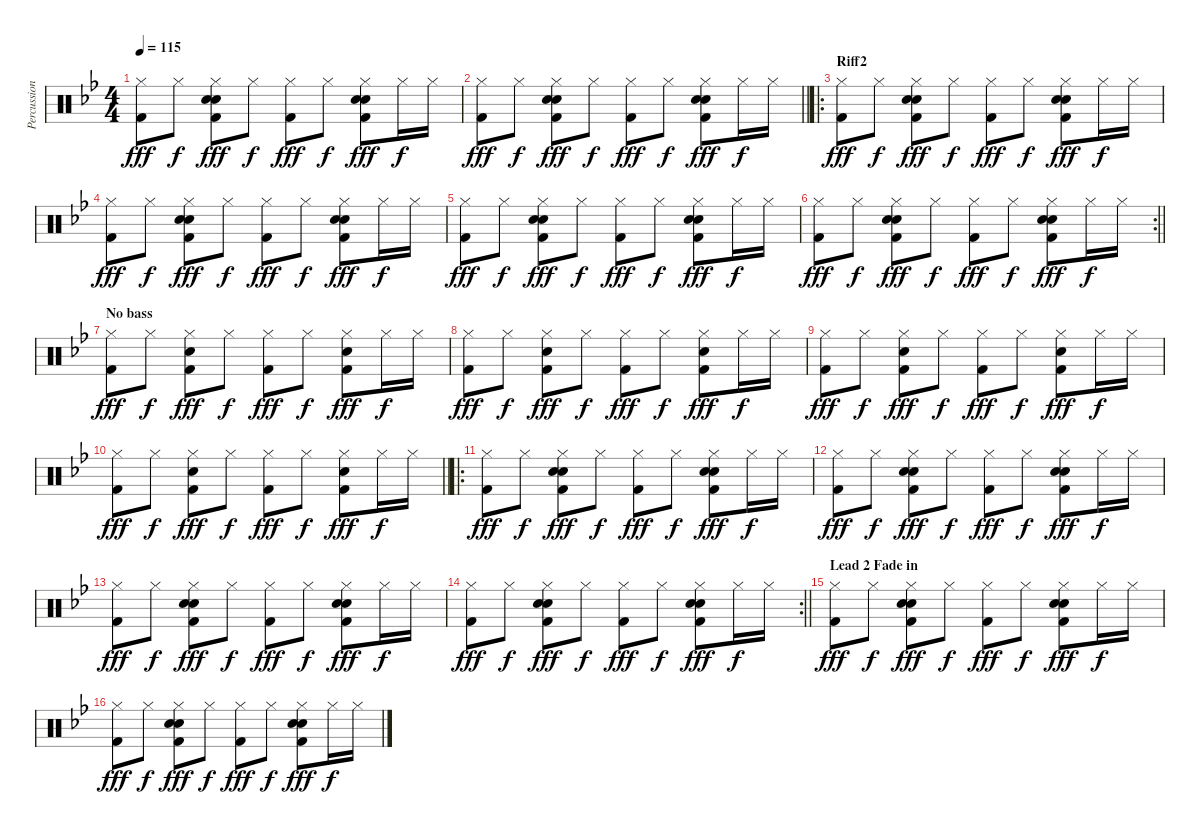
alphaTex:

\track ("Percussions" "Percussion") {instrument percussion}
\staff {score}
\articulation defaults
\ts (4 4)
\tempo 115
\clef neutral
\ks gminor
("Hi-Hat (closed)" "Kick (hit) 2").8{dy fff} "Hi-Hat (closed)".8{dy f} ("Hi-Hat (closed)" "Hand Clap (hit)" "Electric Snare (hit)" "Kick (hit) 2").8{dy fff} "Hi-Hat (closed)".8{dy f} ("Hi-Hat (closed)" "Kick (hit) 2").8{dy fff} "Hi-Hat (closed)".8{dy f} ("Hi-Hat (closed)" "Hand Clap (hit)" "Electric Snare (hit)" "Kick (hit) 2").8{dy fff} "Hi-Hat (closed)".16{dy f} "Hi-Hat (closed)".16 |
\barLineRight lightlight
("Hi-Hat (closed)" "Kick (hit) 2").8{dy fff} "Hi-Hat (closed)".8{dy f} ("Hi-Hat (closed)" "Hand Clap (hit)" "Electric Snare (hit)" "Kick (hit) 2").8{dy fff} "Hi-Hat (closed)".8{dy f} ("Hi-Hat (closed)" "Kick (hit) 2").8{dy fff} "Hi-Hat (closed)".8{dy f} ("Hi-Hat (closed)" "Hand Clap (hit)" "Electric Snare (hit)" "Kick (hit) 2").8{dy fff} "Hi-Hat (closed)".16{dy f} "Hi-Hat (closed)".16 |
\ro
\section ("" "Riff2")
("Hi-Hat (closed)" "Kick (hit) 2").8{dy fff} "Hi-Hat (closed)".8{dy f} ("Hi-Hat (closed)" "Hand Clap (hit)" "Electric Snare (hit)" "Kick (hit) 2").8{dy fff} "Hi-Hat (closed)".8{dy f} ("Hi-Hat (closed)" "Kick (hit) 2").8{dy fff} "Hi-Hat (closed)".8{dy f} ("Hi-Hat (closed)" "Hand Clap (hit)" "Electric Snare (hit)" "Kick (hit) 2").8{dy fff} "Hi-Hat (closed)".16{dy f} "Hi-Hat (closed)".16 |
("Hi-Hat (closed)" "Kick (hit) 2").8{dy fff} "Hi-Hat (closed)".8{dy f} ("Hi-Hat (closed)" "Hand Clap (hit)" "Electric Snare (hit)" "Kick (hit) 2").8{dy fff} "Hi-Hat (closed)".8{dy f} ("Hi-Hat (closed)" "Kick (hit) 2").8{dy fff} "Hi-Hat (closed)".8{dy f} ("Hi-Hat (closed)" "Hand Clap (hit)" "Electric Snare (hit)" "Kick (hit) 2").8{dy fff} "Hi-Hat (closed)".16{dy f} "Hi-Hat (closed)".16 |
("Hi-Hat (closed)" "Kick (hit) 2").8{dy fff} "Hi-Hat (closed)".8{dy f} ("Hi-Hat (closed)" "Hand Clap (hit)" "Electric Snare (hit)" "Kick (hit) 2").8{dy fff} "Hi-Hat (closed)".8{dy f} ("Hi-Hat (closed)" "Kick (hit) 2").8{dy fff} "Hi-Hat (closed)".8{dy f} ("Hi-Hat (closed)" "Hand Clap (hit)" "Electric Snare (hit)" "Kick (hit) 2").8{dy fff} "Hi-Hat (closed)".16{dy f} "Hi-Hat (closed)".16 |
\rc 2
\barLineRight lightlight
("Hi-Hat (closed)" "Kick (hit) 2").8{dy fff} "Hi-Hat (closed)".8{dy f} ("Hi-Hat (closed)" "Hand Clap (hit)" "Electric Snare (hit)" "Kick (hit) 2").8{dy fff} "Hi-Hat (closed)".8{dy f} ("Hi-Hat (closed)" "Kick (hit) 2").8{dy fff} "Hi-Hat (closed)".8{dy f} ("Hi-Hat (closed)" "Hand Clap (hit)" "Electric Snare (hit)" "Kick (hit) 2").8{dy fff} "Hi-Hat (closed)".16{dy f} "Hi-Hat (closed)".16 |
\section ("" "No bass")
("Hi-Hat (closed)" "Kick (hit) 2").8{dy fff} "Hi-Hat (closed)".8{dy f} ("Hi-Hat (closed)" "Hand Clap (hit)" "Kick (hit) 2").8{dy fff} "Hi-Hat (closed)".8{dy f} ("Hi-Hat (closed)" "Kick (hit) 2").8{dy fff} "Hi-Hat (closed)".8{dy f} ("Hi-Hat (closed)" "Hand Clap (hit)" "Kick (hit) 2").8{dy fff} "Hi-Hat (closed)".16{dy f} "Hi-Hat (closed)".16 |
("Hi-Hat (closed)" "Kick (hit) 2").8{dy fff} "Hi-Hat (closed)".8{dy f} ("Hi-Hat (closed)" "Hand Clap (hit)" "Kick (hit) 2").8{dy fff} "Hi-Hat (closed)".8{dy f} ("Hi-Hat (closed)" "Kick (hit) 2").8{dy fff} "Hi-Hat (closed)".8{dy f} ("Hi-Hat (closed)" "Hand Clap (hit)" "Kick (hit) 2").8{dy fff} "Hi-Hat (closed)".16{dy f} "Hi-Hat (closed)".16 |
("Hi-Hat (closed)" "Kick (hit) 2").8{dy fff} "Hi-Hat (closed)".8{dy f} ("Hi-Hat (closed)" "Hand Clap (hit)" "Kick (hit) 2").8{dy fff} "Hi-Hat (closed)".8{dy f} ("Hi-Hat (closed)" "Kick (hit) 2").8{dy fff} "Hi-Hat (closed)".8{dy f} ("Hi-Hat (closed)" "Hand Clap (hit)" "Kick (hit) 2").8{dy fff} "Hi-Hat (closed)".16{dy f} "Hi-Hat (closed)".16 |
\barLineRight lightlight
("Hi-Hat (closed)" "Kick (hit) 2").8{dy fff} "Hi-Hat (closed)".8{dy f} ("Hi-Hat (closed)" "Hand Clap (hit)" "Kick (hit) 2").8{dy fff} "Hi-Hat (closed)".8{dy f} ("Hi-Hat (closed)" "Kick (hit) 2").8{dy fff} "Hi-Hat (closed)".8{dy f} ("Hi-Hat (closed)" "Hand Clap (hit)" "Kick (hit) 2").8{dy fff} "Hi-Hat (closed)".16{dy f} "Hi-Hat (closed)".16 |
\ro
("Hi-Hat (closed)" "Kick (hit) 2").8{dy fff} "Hi-Hat (closed)".8{dy f} ("Hi-Hat (closed)" "Hand Clap (hit)" "Electric Snare (hit)" "Kick (hit) 2").8{dy fff} "Hi-Hat (closed)".8{dy f} ("Hi-Hat (closed)" "Kick (hit) 2").8{dy fff} "Hi-Hat (closed)".8{dy f} ("Hi-Hat (closed)" "Hand Clap (hit)" "Electric Snare (hit)" "Kick (hit) 2").8{dy fff} "Hi-Hat (closed)".16{dy f} "Hi-Hat (closed)".16 |
("Hi-Hat (closed)" "Kick (hit) 2").8{dy fff} "Hi-Hat (closed)".8{dy f} ("Hi-Hat (closed)" "Hand Clap (hit)" "Electric Snare (hit)" "Kick (hit) 2").8{dy fff} "Hi-Hat (closed)".8{dy f} ("Hi-Hat (closed)" "Kick (hit) 2").8{dy fff} "Hi-Hat (closed)".8{dy f} ("Hi-Hat (closed)" "Hand Clap (hit)" "Electric Snare (hit)" "Kick (hit) 2").8{dy fff} "Hi-Hat (closed)".16{dy f} "Hi-Hat (closed)".16 |
("Hi-Hat (closed)" "Kick (hit) 2").8{dy fff} "Hi-Hat (closed)".8{dy f} ("Hi-Hat (closed)" "Hand Clap (hit)" "Electric Snare (hit)" "Kick (hit) 2").8{dy fff} "Hi-Hat (closed)".8{dy f} ("Hi-Hat (closed)" "Kick (hit) 2").8{dy fff} "Hi-Hat (closed)".8{dy f} ("Hi-Hat (closed)" "Hand Clap (hit)" "Electric Snare (hit)" "Kick (hit) 2").8{dy fff} "Hi-Hat (closed)".16{dy f} "Hi-Hat (closed)".16 |
\rc 2
\barLineRight lightlight
("Hi-Hat (closed)" "Kick (hit) 2").8{dy fff} "Hi-Hat (closed)".8{dy f} ("Hi-Hat (closed)" "Hand Clap (hit)" "Electric Snare (hit)" "Kick (hit) 2").8{dy fff} "Hi-Hat (closed)".8{dy f} ("Hi-Hat (closed)" "Kick (hit) 2").8{dy fff} "Hi-Hat (closed)".8{dy f} ("Hi-Hat (closed)" "Hand Clap (hit)" "Electric Snare (hit)" "Kick (hit) 2").8{dy fff} "Hi-Hat (closed)".16{dy f} "Hi-Hat (closed)".16 |
\section ("" "Lead 2 Fade in")
("Hi-Hat (closed)" "Kick (hit) 2").8{dy fff} "Hi-Hat (closed)".8{dy f} ("Hi-Hat (closed)" "Hand Clap (hit)" "Electric Snare (hit)" "Kick (hit) 2").8{dy fff} "Hi-Hat (closed)".8{dy f} ("Hi-Hat (closed)" "Kick (hit) 2").8{dy fff} "Hi-Hat (closed)".8{dy f} ("Hi-Hat (closed)" "Hand Clap (hit)" "Electric Snare (hit)" "Kick (hit) 2").8{dy fff} "Hi-Hat (closed)".16{dy f} "Hi-Hat (closed)".16 |
("Hi-Hat (closed)" "Kick (hit) 2").8{dy fff} "Hi-Hat (closed)".8{dy f} ("Hi-Hat (closed)" "Hand Clap (hit)" "Electric Snare (hit)" "Kick (hit) 2").8{dy fff} "Hi-Hat (closed)".8{dy f} ("Hi-Hat (closed)" "Kick (hit) 2").8{dy fff} "Hi-Hat (closed)".8{dy f} ("Hi-Hat (closed)" "Hand Clap (hit)" "Electric Snare (hit)" "Kick (hit) 2").8{dy fff} "Hi-Hat (closed)".16{dy f} "Hi-Hat (closed)".16
